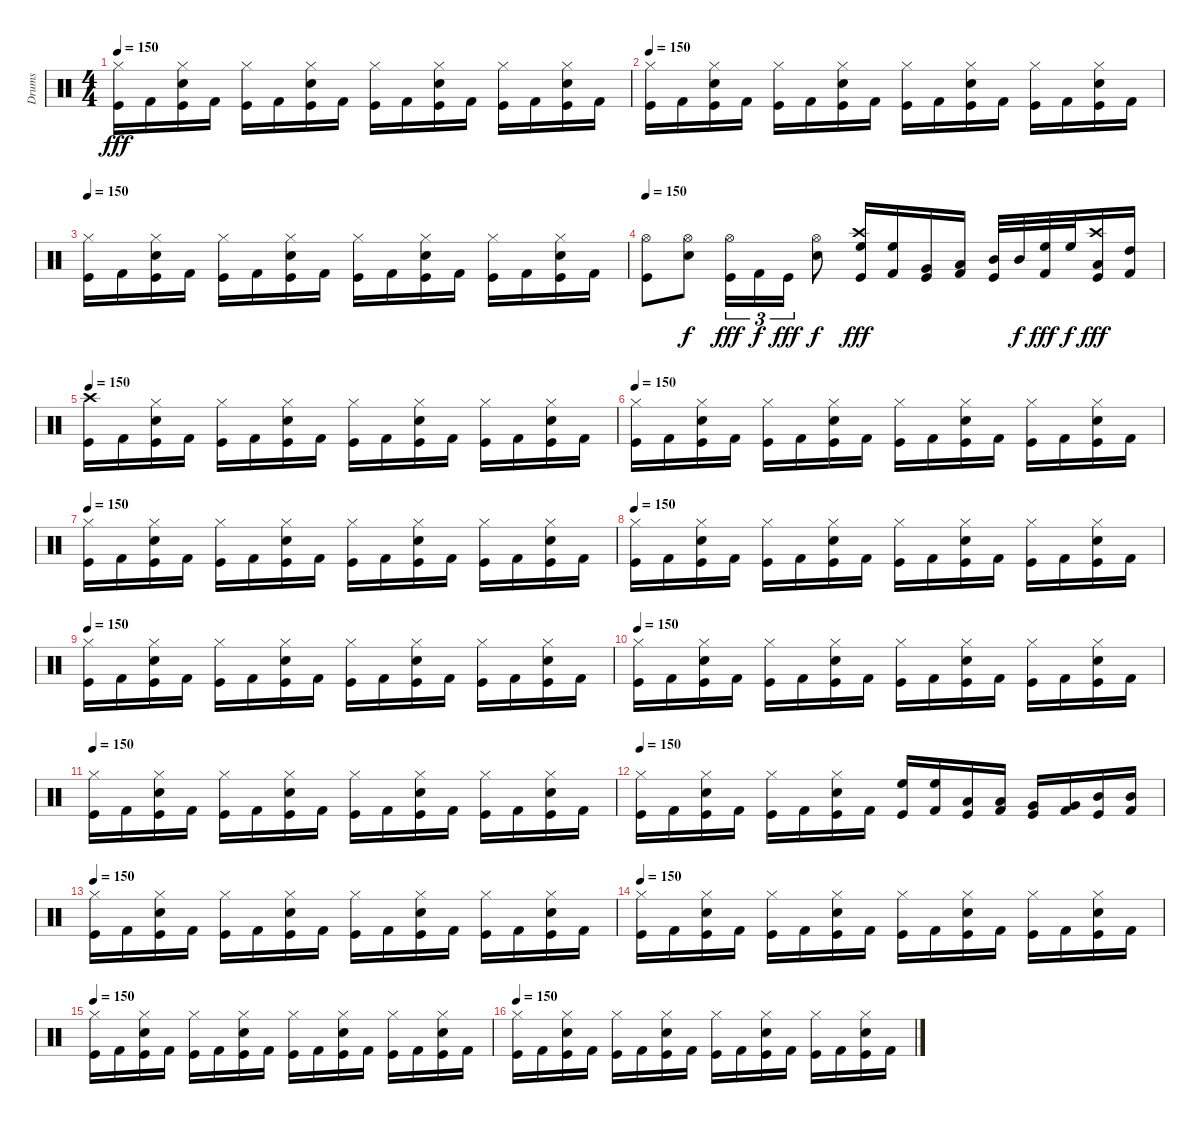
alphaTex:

\track ("Drums" "Drums") {instrument percussion}
\staff {score}
\articulation defaults
\ts (4 4)
\tempo 150
\clef neutral
\ks c
("Hi-Hat (closed)" "Kick (hit)").16{dy fff} "Kick (hit) 2".16 ("Hi-Hat (closed)" "Snare (hit) 2" "Kick (hit)").16 "Kick (hit) 2".16 ("Hi-Hat (closed)" "Kick (hit)").16 "Kick (hit) 2".16 ("Hi-Hat (closed)" "Snare (hit) 2" "Kick (hit)").16 "Kick (hit) 2".16 ("Hi-Hat (closed)" "Kick (hit)").16 "Kick (hit) 2".16 ("Hi-Hat (closed)" "Snare (hit) 2" "Kick (hit)").16 "Kick (hit) 2".16 ("Hi-Hat (closed)" "Kick (hit)").16 "Kick (hit) 2".16 ("Hi-Hat (closed)" "Snare (hit) 2" "Kick (hit)").16 "Kick (hit) 2".16 |
\tempo 150
("Hi-Hat (closed)" "Kick (hit)").16 "Kick (hit) 2".16 ("Hi-Hat (closed)" "Snare (hit) 2" "Kick (hit)").16 "Kick (hit) 2".16 ("Hi-Hat (closed)" "Kick (hit)").16 "Kick (hit) 2".16 ("Hi-Hat (closed)" "Snare (hit) 2" "Kick (hit)").16 "Kick (hit) 2".16 ("Hi-Hat (closed)" "Kick (hit)").16 "Kick (hit) 2".16 ("Hi-Hat (closed)" "Snare (hit) 2" "Kick (hit)").16 "Kick (hit) 2".16 ("Hi-Hat (closed)" "Kick (hit)").16 "Kick (hit) 2".16 ("Hi-Hat (closed)" "Snare (hit) 2" "Kick (hit)").16 "Kick (hit) 2".16 |
\tempo 150
("Hi-Hat (closed)" "Kick (hit)").16 "Kick (hit) 2".16 ("Hi-Hat (closed)" "Snare (hit) 2" "Kick (hit)").16 "Kick (hit) 2".16 ("Hi-Hat (closed)" "Kick (hit)").16 "Kick (hit) 2".16 ("Hi-Hat (closed)" "Snare (hit) 2" "Kick (hit)").16 "Kick (hit) 2".16 ("Hi-Hat (closed)" "Kick (hit)").16 "Kick (hit) 2".16 ("Hi-Hat (closed)" "Snare (hit) 2" "Kick (hit)").16 "Kick (hit) 2".16 ("Hi-Hat (closed)" "Kick (hit)").16 "Kick (hit) 2".16 ("Hi-Hat (closed)" "Snare (hit) 2" "Kick (hit)").16 "Kick (hit) 2".16 |
\tempo 150
("Hi-Hat (open)" "Kick (hit)").8 ("Hi-Hat (open)" "Snare (hit) 2").8{dy f} ("Hi-Hat (open)" "Kick (hit)").16{tu (3 2) dy fff} "Kick (hit) 2".16{tu (3 2) dy f} "Kick (hit)".16{tu (3 2) dy fff} ("Hi-Hat (open)" "Snare (hit) 2").8{dy f} ("Crash high (hit)" "High Floor Tom (hit)" "Kick (hit)").16{dy fff} ("High Floor Tom (hit)" "Kick (hit) 2").16 ("Very Low Tom (hit)" "Kick (hit)").16 ("Low Tom (hit)" "Kick (hit) 2").16 ("Mid Tom (hit)" "Kick (hit)").32 "Mid Tom (hit)".32{dy f} ("High Floor Tom (hit)" "Kick (hit) 2").32{dy fff} "High Floor Tom (hit)".32{dy f} ("Crash high (hit)" "Low Floor Tom (hit)" "Kick (hit)").16{dy fff} ("High Tom (hit)" "Kick (hit) 2").16 |
\tempo 150
("Crash high (hit)" "Kick (hit)").16 "Kick (hit) 2".16 ("Hi-Hat (closed)" "Snare (hit) 2" "Kick (hit)").16 "Kick (hit) 2".16 ("Hi-Hat (closed)" "Kick (hit)").16 "Kick (hit) 2".16 ("Hi-Hat (closed)" "Snare (hit) 2" "Kick (hit)").16 "Kick (hit) 2".16 ("Hi-Hat (closed)" "Kick (hit)").16 "Kick (hit) 2".16 ("Hi-Hat (closed)" "Snare (hit) 2" "Kick (hit)").16 "Kick (hit) 2".16 ("Hi-Hat (closed)" "Kick (hit)").16 "Kick (hit) 2".16 ("Hi-Hat (closed)" "Snare (hit) 2" "Kick (hit)").16 "Kick (hit) 2".16 |
\tempo 150
("Hi-Hat (closed)" "Kick (hit)").16 "Kick (hit) 2".16 ("Hi-Hat (closed)" "Snare (hit) 2" "Kick (hit)").16 "Kick (hit) 2".16 ("Hi-Hat (closed)" "Kick (hit)").16 "Kick (hit) 2".16 ("Hi-Hat (closed)" "Snare (hit) 2" "Kick (hit)").16 "Kick (hit) 2".16 ("Hi-Hat (closed)" "Kick (hit)").16 "Kick (hit) 2".16 ("Hi-Hat (closed)" "Snare (hit) 2" "Kick (hit)").16 "Kick (hit) 2".16 ("Hi-Hat (closed)" "Kick (hit)").16 "Kick (hit) 2".16 ("Hi-Hat (closed)" "Snare (hit) 2" "Kick (hit)").16 "Kick (hit) 2".16 |
\tempo 150
("Hi-Hat (closed)" "Kick (hit)").16 "Kick (hit) 2".16 ("Hi-Hat (closed)" "Snare (hit) 2" "Kick (hit)").16 "Kick (hit) 2".16 ("Hi-Hat (closed)" "Kick (hit)").16 "Kick (hit) 2".16 ("Hi-Hat (closed)" "Snare (hit) 2" "Kick (hit)").16 "Kick (hit) 2".16 ("Hi-Hat (closed)" "Kick (hit)").16 "Kick (hit) 2".16 ("Hi-Hat (closed)" "Snare (hit) 2" "Kick (hit)").16 "Kick (hit) 2".16 ("Hi-Hat (closed)" "Kick (hit)").16 "Kick (hit) 2".16 ("Hi-Hat (closed)" "Snare (hit) 2" "Kick (hit)").16 "Kick (hit) 2".16 |
\tempo 150
("Hi-Hat (closed)" "Kick (hit)").16 "Kick (hit) 2".16 ("Hi-Hat (closed)" "Snare (hit) 2" "Kick (hit)").16 "Kick (hit) 2".16 ("Hi-Hat (closed)" "Kick (hit)").16 "Kick (hit) 2".16 ("Hi-Hat (closed)" "Snare (hit) 2" "Kick (hit)").16 "Kick (hit) 2".16 ("Hi-Hat (closed)" "Kick (hit)").16 "Kick (hit) 2".16 ("Hi-Hat (closed)" "Snare (hit) 2" "Kick (hit)").16 "Kick (hit) 2".16 ("Hi-Hat (closed)" "Kick (hit)").16 "Kick (hit) 2".16 ("Hi-Hat (closed)" "Snare (hit) 2" "Kick (hit)").16 "Kick (hit) 2".16 |
\tempo 150
("Hi-Hat (closed)" "Kick (hit)").16 "Kick (hit) 2".16 ("Hi-Hat (closed)" "Snare (hit) 2" "Kick (hit)").16 "Kick (hit) 2".16 ("Hi-Hat (closed)" "Kick (hit)").16 "Kick (hit) 2".16 ("Hi-Hat (closed)" "Snare (hit) 2" "Kick (hit)").16 "Kick (hit) 2".16 ("Hi-Hat (closed)" "Kick (hit)").16 "Kick (hit) 2".16 ("Hi-Hat (closed)" "Snare (hit) 2" "Kick (hit)").16 "Kick (hit) 2".16 ("Hi-Hat (closed)" "Kick (hit)").16 "Kick (hit) 2".16 ("Hi-Hat (closed)" "Snare (hit) 2" "Kick (hit)").16 "Kick (hit) 2".16 |
\tempo 150
("Hi-Hat (closed)" "Kick (hit)").16 "Kick (hit) 2".16 ("Hi-Hat (closed)" "Snare (hit) 2" "Kick (hit)").16 "Kick (hit) 2".16 ("Hi-Hat (closed)" "Kick (hit)").16 "Kick (hit) 2".16 ("Hi-Hat (closed)" "Snare (hit) 2" "Kick (hit)").16 "Kick (hit) 2".16 ("Hi-Hat (closed)" "Kick (hit)").16 "Kick (hit) 2".16 ("Hi-Hat (closed)" "Snare (hit) 2" "Kick (hit)").16 "Kick (hit) 2".16 ("Hi-Hat (closed)" "Kick (hit)").16 "Kick (hit) 2".16 ("Hi-Hat (closed)" "Snare (hit) 2" "Kick (hit)").16 "Kick (hit) 2".16 |
\tempo 150
("Hi-Hat (closed)" "Kick (hit)").16 "Kick (hit) 2".16 ("Hi-Hat (closed)" "Snare (hit) 2" "Kick (hit)").16 "Kick (hit) 2".16 ("Hi-Hat (closed)" "Kick (hit)").16 "Kick (hit) 2".16 ("Hi-Hat (closed)" "Snare (hit) 2" "Kick (hit)").16 "Kick (hit) 2".16 ("Hi-Hat (closed)" "Kick (hit)").16 "Kick (hit) 2".16 ("Hi-Hat (closed)" "Snare (hit) 2" "Kick (hit)").16 "Kick (hit) 2".16 ("Hi-Hat (closed)" "Kick (hit)").16 "Kick (hit) 2".16 ("Hi-Hat (closed)" "Snare (hit) 2" "Kick (hit)").16 "Kick (hit) 2".16 |
\tempo 150
("Hi-Hat (closed)" "Kick (hit)").16 "Kick (hit) 2".16 ("Hi-Hat (closed)" "Snare (hit) 2" "Kick (hit)").16 "Kick (hit) 2".16 ("Hi-Hat (closed)" "Kick (hit)").16 "Kick (hit) 2".16 ("Hi-Hat (closed)" "Snare (hit) 2" "Kick (hit)").16 "Kick (hit) 2".16 ("High Floor Tom (hit)" "Kick (hit)").16 ("High Floor Tom (hit)" "Kick (hit) 2").16 ("Low Tom (hit)" "Kick (hit)").16 ("Low Tom (hit)" "Kick (hit) 2").16 ("Very Low Tom (hit)" "Kick (hit)").16 ("Very Low Tom (hit)" "Kick (hit) 2").16 ("Mid Tom (hit)" "Kick (hit)").16 ("Mid Tom (hit)" "Kick (hit) 2").16 |
\tempo 150
("Hi-Hat (closed)" "Kick (hit)").16 "Kick (hit) 2".16 ("Hi-Hat (closed)" "Snare (hit) 2" "Kick (hit)").16 "Kick (hit) 2".16 ("Hi-Hat (closed)" "Kick (hit)").16 "Kick (hit) 2".16 ("Hi-Hat (closed)" "Snare (hit) 2" "Kick (hit)").16 "Kick (hit) 2".16 ("Hi-Hat (closed)" "Kick (hit)").16 "Kick (hit) 2".16 ("Hi-Hat (closed)" "Snare (hit) 2" "Kick (hit)").16 "Kick (hit) 2".16 ("Hi-Hat (closed)" "Kick (hit)").16 "Kick (hit) 2".16 ("Hi-Hat (closed)" "Snare (hit) 2" "Kick (hit)").16 "Kick (hit) 2".16 |
\tempo 150
("Hi-Hat (closed)" "Kick (hit)").16 "Kick (hit) 2".16 ("Hi-Hat (closed)" "Snare (hit) 2" "Kick (hit)").16 "Kick (hit) 2".16 ("Hi-Hat (closed)" "Kick (hit)").16 "Kick (hit) 2".16 ("Hi-Hat (closed)" "Snare (hit) 2" "Kick (hit)").16 "Kick (hit) 2".16 ("Hi-Hat (closed)" "Kick (hit)").16 "Kick (hit) 2".16 ("Hi-Hat (closed)" "Snare (hit) 2" "Kick (hit)").16 "Kick (hit) 2".16 ("Hi-Hat (closed)" "Kick (hit)").16 "Kick (hit) 2".16 ("Hi-Hat (closed)" "Snare (hit) 2" "Kick (hit)").16 "Kick (hit) 2".16 |
\tempo 150
("Hi-Hat (closed)" "Kick (hit)").16 "Kick (hit) 2".16 ("Hi-Hat (closed)" "Snare (hit) 2" "Kick (hit)").16 "Kick (hit) 2".16 ("Hi-Hat (closed)" "Kick (hit)").16 "Kick (hit) 2".16 ("Hi-Hat (closed)" "Snare (hit) 2" "Kick (hit)").16 "Kick (hit) 2".16 ("Hi-Hat (closed)" "Kick (hit)").16 "Kick (hit) 2".16 ("Hi-Hat (closed)" "Snare (hit) 2" "Kick (hit)").16 "Kick (hit) 2".16 ("Hi-Hat (closed)" "Kick (hit)").16 "Kick (hit) 2".16 ("Hi-Hat (closed)" "Snare (hit) 2" "Kick (hit)").16 "Kick (hit) 2".16 |
\tempo 150
("Hi-Hat (closed)" "Kick (hit)").16 "Kick (hit) 2".16 ("Hi-Hat (closed)" "Snare (hit) 2" "Kick (hit)").16 "Kick (hit) 2".16 ("Hi-Hat (closed)" "Kick (hit)").16 "Kick (hit) 2".16 ("Hi-Hat (closed)" "Snare (hit) 2" "Kick (hit)").16 "Kick (hit) 2".16 ("Hi-Hat (closed)" "Kick (hit)").16 "Kick (hit) 2".16 ("Hi-Hat (closed)" "Snare (hit) 2" "Kick (hit)").16 "Kick (hit) 2".16 ("Hi-Hat (closed)" "Kick (hit)").16 "Kick (hit) 2".16 ("Hi-Hat (closed)" "Snare (hit) 2" "Kick (hit)").16 "Kick (hit) 2".16
